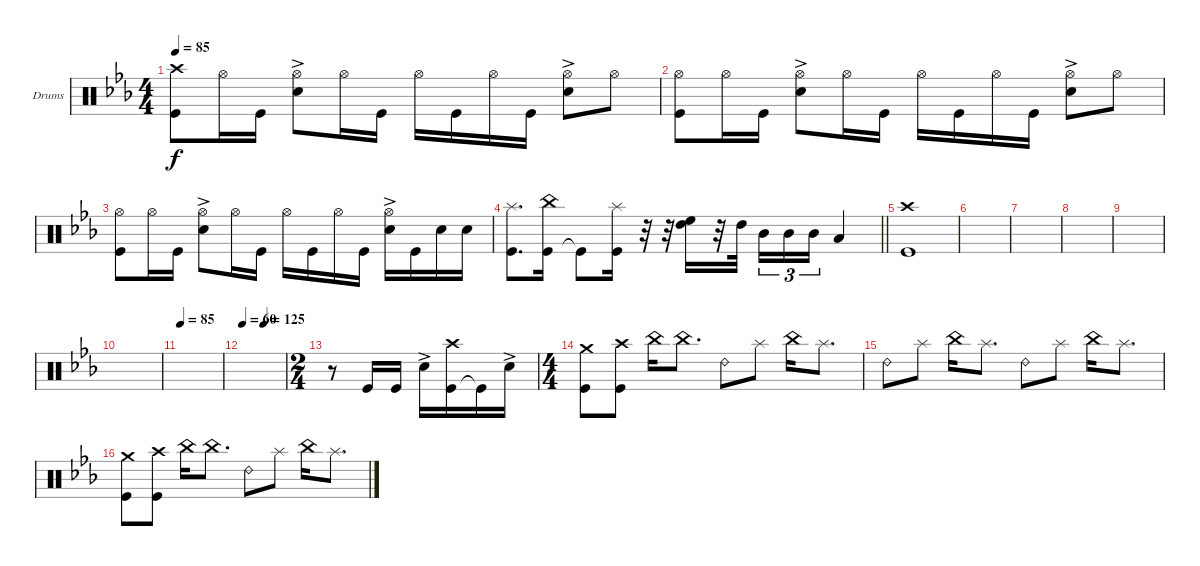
\bracketExtendMode groupsimilarinstruments
\firstSystemTrackNameOrientation horizontal
\otherSystemsTrackNameOrientation horizontal
\track ("Drumkit" "Drums") {instrument percussion}
\staff {score}
\articulation defaults
\ts (4 4)
\tempo 85
\clef neutral
\ks cminor
("Kick (hit)" "Crash high (hit)").8{dy f} "Hi-Hat (open)".16 "Kick (hit)".16 ("Snare (hit) 2"{ac} "Hi-Hat (open)").8 "Hi-Hat (open)".16 "Kick (hit)".16 "Hi-Hat (open)".16 "Kick (hit)".16 "Hi-Hat (open)".16 "Kick (hit)".16 ("Snare (hit) 2"{ac} "Hi-Hat (open)").8 "Hi-Hat (open)".8 |
("Kick (hit)" "Hi-Hat (open)").8 "Hi-Hat (open)".16 "Kick (hit)".16 ("Snare (hit) 2"{ac} "Hi-Hat (open)").8 "Hi-Hat (open)".16 "Kick (hit)".16 "Hi-Hat (open)".16 "Kick (hit)".16 "Hi-Hat (open)".16 "Kick (hit)".16 ("Snare (hit) 2"{ac} "Hi-Hat (open)").8 "Hi-Hat (open)".8 |
("Kick (hit)" "Hi-Hat (open)").8 "Hi-Hat (open)".16 "Kick (hit)".16 ("Snare (hit) 2"{ac} "Hi-Hat (open)").8 "Hi-Hat (open)".16 "Kick (hit)".16 "Hi-Hat (open)".16 "Kick (hit)".16 "Hi-Hat (open)".16 "Kick (hit)".16 ("Snare (hit) 2"{ac} "Hi-Hat (open)").16 "Kick (hit)".16 "Snare (hit) 2".16 "Snare (hit) 2".16 |
\barLineRight lightlight
("Kick (hit)" "Splash (hit)").8{d} ("Kick (hit)" "China (hit)").16 "Kick (hit)"{t}.8 ("Splash (hit)" "Kick (hit)").16 r.32 r.32 ("High Tom (hit)" "High Floor Tom (hit)").16 r.32 "High Tom (hit)".32 "Mid Tom (hit)".16{tu (3 2)} "Mid Tom (hit)".16{tu (3 2)} "Mid Tom (hit)".16{tu (3 2)} "Low Tom (hit)".4 |
("Kick (hit)" "Crash high (hit)").1 |
|
|
|
|
|
\tempo 85
|
\tempo 60
\tempo (125 0.5)
|
\ts (2 4)
r.8 "Kick (hit)".16 "Kick (hit)".16 "Snare (hit) 2"{ac}.16 ("Kick (hit)" "Crash high (hit)").16 "Kick (hit)"{t}.16 "Snare (hit) 2"{ac}.16 |
\ts (4 4)
("Crash medium (hit)" "Kick (hit)").8 ("Crash high (hit)" "Kick (hit)").8 "China (hit)".16 "China (hit)".8{d} "Ride (bell) 2".8 "Splash (hit)".8 "China (hit)".16 "Splash (hit)".8{d} |
"Ride (bell) 2".8 "Splash (hit)".8 "China (hit)".16 "Splash (hit)".8{d} "Ride (bell) 2".8 "Splash (hit)".8 "China (hit)".16 "Splash (hit)".8{d} |
("Crash medium (hit)" "Kick (hit)").8 ("Crash high (hit)" "Kick (hit)").8 "China (hit)".16 "China (hit)".8{d} "Ride (bell) 2".8 "Splash (hit)".8 "China (hit)".16 "Splash (hit)".8{d}
